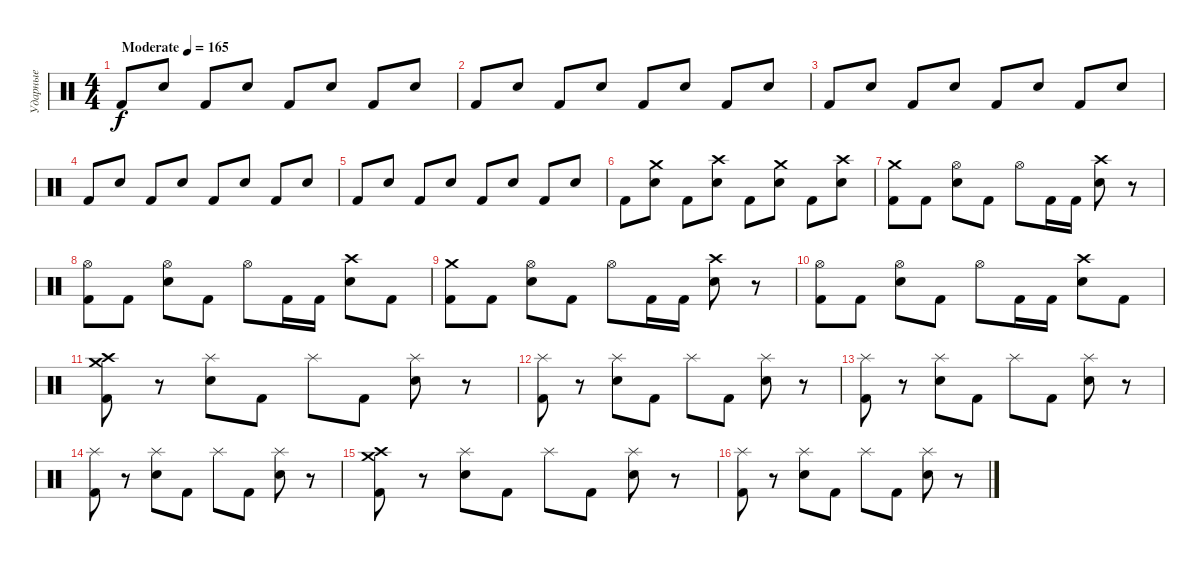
\track ("Ударные" "Ударные") {instrument percussion}
\staff {score}
\articulation defaults
\ts (4 4)
\tempo (165 "Moderate")
\clef neutral
\ks c "Kick (hit) 2".8{dy f} "Electric Snare (hit)".8 "Kick (hit) 2".8 "Electric Snare (hit)".8 "Kick (hit) 2".8 "Electric Snare (hit)".8 "Kick (hit) 2".8 "Electric Snare (hit)".8
|
"Kick (hit) 2".8 "Electric Snare (hit)".8 "Kick (hit) 2".8 "Electric Snare (hit)".8 "Kick (hit) 2".8 "Electric Snare (hit)".8 "Kick (hit) 2".8 "Electric Snare (hit)".8 |
"Kick (hit) 2".8 "Electric Snare (hit)".8 "Kick (hit) 2".8 "Electric Snare (hit)".8 "Kick (hit) 2".8 "Electric Snare (hit)".8 "Kick (hit) 2".8 "Electric Snare (hit)".8 |
"Kick (hit) 2".8 "Electric Snare (hit)".8 "Kick (hit) 2".8 "Electric Snare (hit)".8 "Kick (hit) 2".8 "Electric Snare (hit)".8 "Kick (hit) 2".8 "Electric Snare (hit)".8 |
"Kick (hit) 2".8 "Electric Snare (hit)".8 "Kick (hit) 2".8 "Electric Snare (hit)".8 "Kick (hit) 2".8 "Electric Snare (hit)".8 "Kick (hit) 2".8 "Electric Snare (hit)".8 |
"Kick (hit) 2".8 ("Crash medium (hit)" "Electric Snare (hit)").8 "Kick (hit) 2".8 ("Crash high (hit)" "Electric Snare (hit)").8 "Kick (hit) 2".8 ("Crash medium (hit)" "Electric Snare (hit)").8 "Kick (hit) 2".8 ("Crash high (hit)" "Electric Snare (hit)").8 |
("Crash medium (hit)" "Kick (hit) 2").8 "Kick (hit) 2".8 ("Hi-Hat (open)" "Electric Snare (hit)").8 "Kick (hit) 2".8 "Hi-Hat (open)".8 "Kick (hit) 2".16 "Kick (hit) 2".16 ("Crash high (hit)" "Electric Snare (hit)").8 r.8 |
("Hi-Hat (open)" "Kick (hit) 2").8 "Kick (hit) 2".8 ("Hi-Hat (open)" "Electric Snare (hit)").8 "Kick (hit) 2".8 "Hi-Hat (open)".8 "Kick (hit) 2".16 "Kick (hit) 2".16 ("Crash high (hit)" "Electric Snare (hit)").8 "Kick (hit) 2".8 |
("Crash medium (hit)" "Kick (hit) 2").8 "Kick (hit) 2".8 ("Hi-Hat (open)" "Electric Snare (hit)").8 "Kick (hit) 2".8 "Hi-Hat (open)".8 "Kick (hit) 2".16 "Kick (hit) 2".16 ("Crash high (hit)" "Electric Snare (hit)").8 r.8 |
("Hi-Hat (open)" "Kick (hit) 2").8 "Kick (hit) 2".8 ("Hi-Hat (open)" "Electric Snare (hit)").8 "Kick (hit) 2".8 "Hi-Hat (open)".8 "Kick (hit) 2".16 "Kick (hit) 2".16 ("Crash high (hit)" "Electric Snare (hit)").8 "Kick (hit) 2".8 |
("Crash medium (hit)" "Crash high (hit)" "Kick (hit) 2").8 r.8 ("Splash (hit)" "Electric Snare (hit)").8 "Kick (hit) 2".8 "Splash (hit)".8 "Kick (hit) 2".8 ("Splash (hit)" "Electric Snare (hit)").8 r.8 |
("Splash (hit)" "Kick (hit) 2").8 r.8 ("Splash (hit)" "Electric Snare (hit)").8 "Kick (hit) 2".8 "Splash (hit)".8 "Kick (hit) 2".8 ("Splash (hit)" "Electric Snare (hit)").8 r.8 |
("Splash (hit)" "Kick (hit) 2").8 r.8 ("Splash (hit)" "Electric Snare (hit)").8 "Kick (hit) 2".8 "Splash (hit)".8 "Kick (hit) 2".8 ("Splash (hit)" "Electric Snare (hit)").8 r.8 |
("Splash (hit)" "Kick (hit) 2").8 r.8 ("Splash (hit)" "Electric Snare (hit)").8 "Kick (hit) 2".8 "Splash (hit)".8 "Kick (hit) 2".8 ("Splash (hit)" "Electric Snare (hit)").8 r.8 |
("Crash medium (hit)" "Crash high (hit)" "Kick (hit) 2").8 r.8 ("Splash (hit)" "Electric Snare (hit)").8 "Kick (hit) 2".8 "Splash (hit)".8 "Kick (hit) 2".8 ("Splash (hit)" "Electric Snare (hit)").8 r.8 |
("Splash (hit)" "Kick (hit) 2").8 r.8 ("Splash (hit)" "Electric Snare (hit)").8 "Kick (hit) 2".8 "Splash (hit)".8 "Kick (hit) 2".8 ("Splash (hit)" "Electric Snare (hit)").8 r.8
